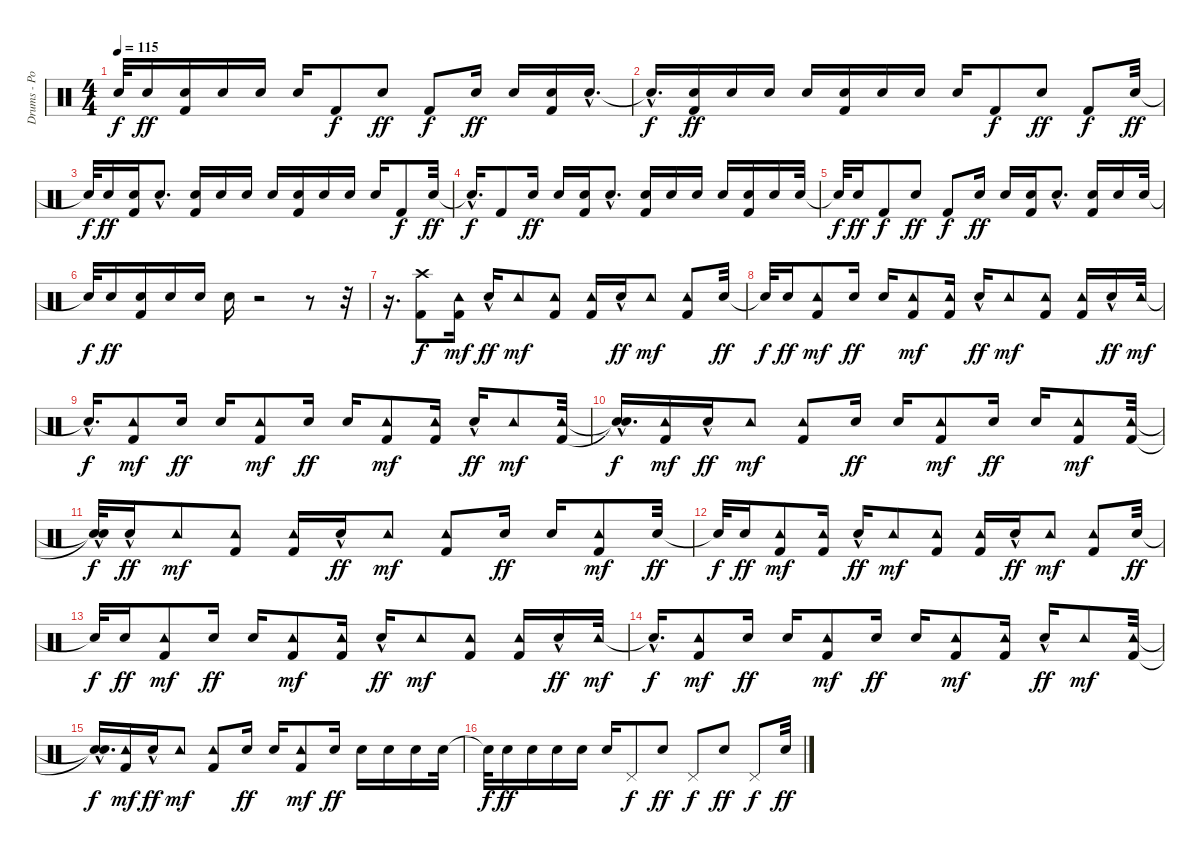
\track ("Drums - Portnoy" "Drums - Po") {instrument percussion}
\staff {score}
\articulation defaults
\ts (4 4)
\tempo 115
\clef neutral
\ks c "Snare (hit)"{t}.32{dy f} "Electric Snare (hit)".16{dy ff}
("Kick (hit) 2" "Electric Snare (hit)").16 "Electric Snare (hit)".16 "Electric Snare (hit)".16 "Electric Snare (hit)".16 "Kick (hit) 2".8{dy f} "Electric Snare (hit)".8{dy ff} "Kick (hit) 2".8{dy f} "Electric Snare (hit)".16{dy ff} "Electric Snare (hit)".16 ("Kick (hit) 2" "Electric Snare (hit)").16 "Electric Snare (hit)"{hac}.16{d} |
"Snare (hit)"{hac t}.16{d dy f} ("Kick (hit) 2" "Electric Snare (hit)").16{dy ff} "Electric Snare (hit)".16 "Electric Snare (hit)".16 "Electric Snare (hit)".16 ("Kick (hit) 2" "Electric Snare (hit)").16 "Electric Snare (hit)".16 "Electric Snare (hit)".16 "Electric Snare (hit)".16 "Kick (hit) 2".8{dy f} "Electric Snare (hit)".8{dy ff} "Kick (hit) 2".8{dy f} "Electric Snare (hit)".32{dy ff} |
"Snare (hit)"{t}.32{dy f} "Electric Snare (hit)".16{dy ff} ("Kick (hit) 2" "Electric Snare (hit)").16 "Electric Snare (hit)"{hac}.8{d} ("Kick (hit) 2" "Electric Snare (hit)").16 "Electric Snare (hit)".16 "Electric Snare (hit)".16 "Electric Snare (hit)".16 ("Kick (hit) 2" "Electric Snare (hit)").16 "Electric Snare (hit)".16 "Electric Snare (hit)".16 "Electric Snare (hit)".16 "Kick (hit) 2".8{dy f} "Electric Snare (hit)".32{dy ff} |
"Snare (hit)"{hac t}.16{d dy f} "Kick (hit) 2".8 "Electric Snare (hit)".16{dy ff} "Electric Snare (hit)".16 ("Kick (hit) 2" "Electric Snare (hit)").16 "Electric Snare (hit)"{hac}.8{d} ("Kick (hit) 2" "Electric Snare (hit)").16 "Electric Snare (hit)".16 "Electric Snare (hit)".16 "Electric Snare (hit)".16 ("Kick (hit) 2" "Electric Snare (hit)").16 "Electric Snare (hit)".16 "Electric Snare (hit)".32 |
"Snare (hit)"{t}.32{dy f} "Electric Snare (hit)".16{dy ff} "Kick (hit) 2".8{dy f} "Electric Snare (hit)".8{dy ff} "Kick (hit) 2".8{dy f} "Electric Snare (hit)".16{dy ff} "Electric Snare (hit)".16 ("Kick (hit) 2" "Electric Snare (hit)").16 "Electric Snare (hit)"{hac}.8{d} ("Kick (hit) 2" "Electric Snare (hit)").16 "Electric Snare (hit)".16 "Electric Snare (hit)".32 |
"Snare (hit)"{t}.32{dy f} "Electric Snare (hit)".16{dy ff} ("Kick (hit) 2" "Electric Snare (hit)").16 "Electric Snare (hit)".16 "Electric Snare (hit)".16 "Electric Snare (hit)".16 r.2 r.8 r.32 |
r.16{d} ("Kick (hit) 2" "Crash high (hit)").8{dy f} ("Kick (hit) 2" "Tambourine (hit)").16{dy mf} "Electric Snare (hit)"{hac}.16{dy ff} "Tambourine (hit)".8{dy mf} ("Kick (hit) 2" "Tambourine (hit)").8 ("Kick (hit) 2" "Tambourine (hit)").16 "Electric Snare (hit)"{hac}.16{dy ff} "Tambourine (hit)".8{dy mf} ("Kick (hit) 2" "Tambourine (hit)").8 "Electric Snare (hit)".32{dy ff} |
"Snare (hit)"{t}.32{dy f} "Electric Snare (hit)".16{dy ff} ("Kick (hit) 2" "Tambourine (hit)").8{dy mf} "Electric Snare (hit)".16{dy ff} "Electric Snare (hit)".16 ("Kick (hit) 2" "Tambourine (hit)").8{dy mf} ("Kick (hit) 2" "Tambourine (hit)").16 "Electric Snare (hit)"{hac}.16{dy ff} "Tambourine (hit)".8{dy mf} ("Kick (hit) 2" "Tambourine (hit)").8 ("Kick (hit) 2" "Tambourine (hit)").16 "Electric Snare (hit)"{hac}.16{dy ff} "Tambourine (hit)".32{dy mf} |
"Snare (hit)"{hac t}.16{d dy f} ("Kick (hit) 2" "Tambourine (hit)").8{dy mf} "Electric Snare (hit)".16{dy ff} "Electric Snare (hit)".16 ("Kick (hit) 2" "Tambourine (hit)").8{dy mf} "Electric Snare (hit)".16{dy ff} "Electric Snare (hit)".16 ("Kick (hit) 2" "Tambourine (hit)").8{dy mf} ("Kick (hit) 2" "Tambourine (hit)").16 "Electric Snare (hit)"{hac}.16{dy ff} "Tambourine (hit)".8{dy mf} ("Kick (hit) 2" "Tambourine (hit)").32 |
("Snare (hit)"{hac t} "Snare (hit)"{hac t}).16{d dy f} ("Kick (hit) 2" "Tambourine (hit)").16{dy mf} "Electric Snare (hit)"{hac}.16{dy ff} "Tambourine (hit)".8{dy mf} ("Kick (hit) 2" "Tambourine (hit)").8 "Electric Snare (hit)".16{dy ff} "Electric Snare (hit)".16 ("Kick (hit) 2" "Tambourine (hit)").8{dy mf} "Electric Snare (hit)".16{dy ff} "Electric Snare (hit)".16 ("Kick (hit) 2" "Tambourine (hit)").8{dy mf} ("Kick (hit) 2" "Tambourine (hit)").32 |
("Snare (hit)"{t} "Snare (hit)"{hac t}).32{dy f} "Electric Snare (hit)"{hac}.16{dy ff} "Tambourine (hit)".8{dy mf} ("Kick (hit) 2" "Tambourine (hit)").8 ("Kick (hit) 2" "Tambourine (hit)").16 "Electric Snare (hit)"{hac}.16{dy ff} "Tambourine (hit)".8{dy mf} ("Kick (hit) 2" "Tambourine (hit)").8 "Electric Snare (hit)".16{dy ff} "Electric Snare (hit)".16 ("Kick (hit) 2" "Tambourine (hit)").8{dy mf} "Electric Snare (hit)".32{dy ff} |
"Snare (hit)"{t}.32{dy f} "Electric Snare (hit)".16{dy ff} ("Kick (hit) 2" "Tambourine (hit)").8{dy mf} ("Kick (hit) 2" "Tambourine (hit)").16 "Electric Snare (hit)"{hac}.16{dy ff} "Tambourine (hit)".8{dy mf} ("Kick (hit) 2" "Tambourine (hit)").8 ("Kick (hit) 2" "Tambourine (hit)").16 "Electric Snare (hit)"{hac}.16{dy ff} "Tambourine (hit)".8{dy mf} ("Kick (hit) 2" "Tambourine (hit)").8 "Electric Snare (hit)".32{dy ff} |
"Snare (hit)"{t}.32{dy f} "Electric Snare (hit)".16{dy ff} ("Kick (hit) 2" "Tambourine (hit)").8{dy mf} "Electric Snare (hit)".16{dy ff} "Electric Snare (hit)".16 ("Kick (hit) 2" "Tambourine (hit)").8{dy mf} ("Kick (hit) 2" "Tambourine (hit)").16 "Electric Snare (hit)"{hac}.16{dy ff} "Tambourine (hit)".8{dy mf} ("Kick (hit) 2" "Tambourine (hit)").8 ("Kick (hit) 2" "Tambourine (hit)").16 "Electric Snare (hit)"{hac}.16{dy ff} "Tambourine (hit)".32{dy mf} |
"Snare (hit)"{hac t}.16{d dy f} ("Kick (hit) 2" "Tambourine (hit)").8{dy mf} "Electric Snare (hit)".16{dy ff} "Electric Snare (hit)".16 ("Kick (hit) 2" "Tambourine (hit)").8{dy mf} "Electric Snare (hit)".16{dy ff} "Electric Snare (hit)".16 ("Kick (hit) 2" "Tambourine (hit)").8{dy mf} ("Kick (hit) 2" "Tambourine (hit)").16 "Electric Snare (hit)"{hac}.16{dy ff} "Tambourine (hit)".8{dy mf} ("Kick (hit) 2" "Tambourine (hit)").32 |
("Snare (hit)"{hac t} "Snare (hit)"{hac t}).16{d dy f} ("Kick (hit) 2" "Tambourine (hit)").16{dy mf} "Electric Snare (hit)"{hac}.16{dy ff} "Tambourine (hit)".8{dy mf} ("Kick (hit) 2" "Tambourine (hit)").8 "Electric Snare (hit)".16{dy ff} "Electric Snare (hit)".16 ("Kick (hit) 2" "Tambourine (hit)").8{dy mf} "Electric Snare (hit)".16{dy ff} "Electric Snare (hit)".16 "Electric Snare (hit)".16 "Electric Snare (hit)".16 "Electric Snare (hit)".32 |
"Snare (hit)"{t}.32{dy f} "Electric Snare (hit)".16{dy ff} "Electric Snare (hit)".16 "Electric Snare (hit)".16 "Electric Snare (hit)".16 "Electric Snare (hit)".16 "Pedal Hi-Hat (hit)".8{dy f} "Electric Snare (hit)".8{dy ff} "Pedal Hi-Hat (hit)".8{dy f} "Electric Snare (hit)".8{dy ff} "Pedal Hi-Hat (hit)".8{dy f} "Electric Snare (hit)".32{dy ff}
